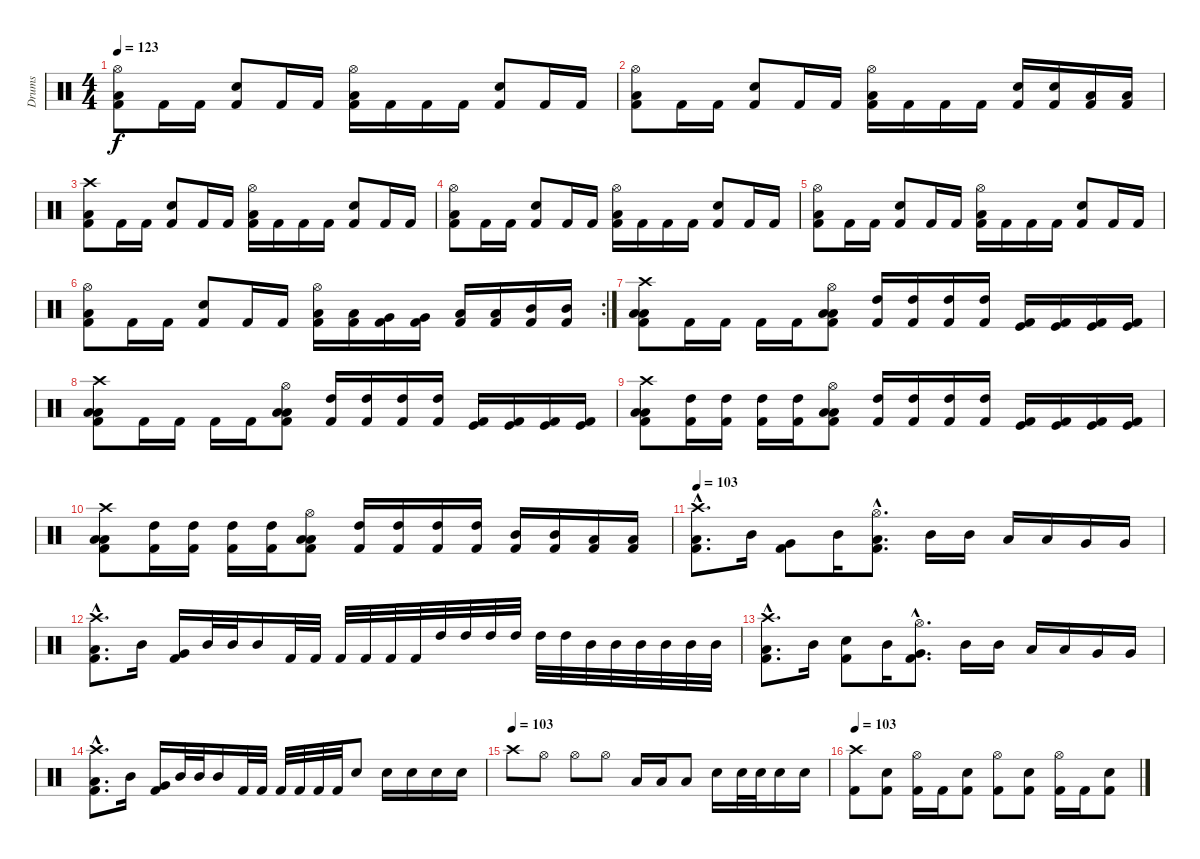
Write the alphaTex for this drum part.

\track ("Drums" "Drums") {instrument percussion}
\staff {score}
\articulation defaults
\ts (4 4)
\tempo 123
\clef neutral
\ks c
("Hi-Hat (open)" "Low Floor Tom (hit)" "Kick (hit) 2").8{dy f} "Kick (hit) 2".16 "Kick (hit) 2".16 ("Snare (hit) 2" "Kick (hit) 2").8 "Kick (hit) 2".16 "Kick (hit) 2".16 ("Hi-Hat (open)" "Low Floor Tom (hit)" "Kick (hit) 2").16 "Kick (hit) 2".16 "Kick (hit) 2".16 "Kick (hit) 2".16 ("Snare (hit) 2" "Kick (hit) 2").8 "Kick (hit) 2".16 "Kick (hit) 2".16 |
("Hi-Hat (open)" "Low Floor Tom (hit)" "Kick (hit) 2").8 "Kick (hit) 2".16 "Kick (hit) 2".16 ("Snare (hit) 2" "Kick (hit) 2").8 "Kick (hit) 2".16 "Kick (hit) 2".16 ("Hi-Hat (open)" "Low Floor Tom (hit)" "Kick (hit) 2").16 "Kick (hit) 2".16 "Kick (hit) 2".16 "Kick (hit) 2".16 ("Snare (hit) 2" "Kick (hit) 2").16 ("Snare (hit) 2" "Kick (hit) 2").16 ("Low Tom (hit)" "Kick (hit) 2").16 ("Low Tom (hit)" "Kick (hit) 2").16 |
("Crash high (hit)" "Low Floor Tom (hit)" "Kick (hit) 2").8 "Kick (hit) 2".16 "Kick (hit) 2".16 ("Snare (hit) 2" "Kick (hit) 2").8 "Kick (hit) 2".16 "Kick (hit) 2".16 ("Hi-Hat (open)" "Low Floor Tom (hit)" "Kick (hit) 2").16 "Kick (hit) 2".16 "Kick (hit) 2".16 "Kick (hit) 2".16 ("Snare (hit) 2" "Kick (hit) 2").8 "Kick (hit) 2".16 "Kick (hit) 2".16 |
("Hi-Hat (open)" "Low Floor Tom (hit)" "Kick (hit) 2").8 "Kick (hit) 2".16 "Kick (hit) 2".16 ("Snare (hit) 2" "Kick (hit) 2").8 "Kick (hit) 2".16 "Kick (hit) 2".16 ("Hi-Hat (open)" "Low Floor Tom (hit)" "Kick (hit) 2").16 "Kick (hit) 2".16 "Kick (hit) 2".16 "Kick (hit) 2".16 ("Snare (hit) 2" "Kick (hit) 2").8 "Kick (hit) 2".16 "Kick (hit) 2".16 |
("Hi-Hat (open)" "Low Floor Tom (hit)" "Kick (hit) 2").8 "Kick (hit) 2".16 "Kick (hit) 2".16 ("Snare (hit) 2" "Kick (hit) 2").8 "Kick (hit) 2".16 "Kick (hit) 2".16 ("Hi-Hat (open)" "Low Floor Tom (hit)" "Kick (hit) 2").16 "Kick (hit) 2".16 "Kick (hit) 2".16 "Kick (hit) 2".16 ("Snare (hit) 2" "Kick (hit) 2").8 "Kick (hit) 2".16 "Kick (hit) 2".16 |
\rc 2
("Hi-Hat (open)" "Low Floor Tom (hit)" "Kick (hit) 2").8 "Kick (hit) 2".16 "Kick (hit) 2".16 ("Snare (hit) 2" "Kick (hit) 2").8 "Kick (hit) 2".16 "Kick (hit) 2".16 ("Hi-Hat (open)" "Low Floor Tom (hit)" "Kick (hit) 2").16 ("Low Floor Tom (hit)" "Kick (hit) 2").16 ("Very Low Tom (hit)" "Kick (hit) 2").16 ("Very Low Tom (hit)" "Kick (hit) 2").16 ("Low Tom (hit)" "Kick (hit) 2").16 ("Low Tom (hit)" "Kick (hit) 2").16 ("Mid Tom (hit)" "Kick (hit) 2").16 ("Mid Tom (hit)" "Kick (hit) 2").16 |
("Crash high (hit)" "Low Floor Tom (hit)" "Low Floor Tom (hit)" "Kick (hit) 2").8 "Kick (hit) 2".16 "Kick (hit) 2".16 "Kick (hit) 2".16 "Kick (hit) 2".16 ("Hi-Hat (open)" "Low Tom (hit)" "Low Tom (hit)" "Kick (hit) 2").8 ("High Tom (hit)" "Kick (hit) 2").16 ("High Tom (hit)" "Kick (hit) 2").16 ("High Tom (hit)" "Kick (hit) 2").16 ("High Tom (hit)" "Kick (hit) 2").16 ("Kick (hit)" "Kick (hit) 2").16 ("Kick (hit)" "Kick (hit) 2").16 ("Kick (hit)" "Kick (hit) 2").16 ("Kick (hit)" "Kick (hit) 2").16 |
("Crash high (hit)" "Low Floor Tom (hit)" "Low Floor Tom (hit)" "Kick (hit) 2").8 "Kick (hit) 2".16 "Kick (hit) 2".16 "Kick (hit) 2".16 "Kick (hit) 2".16 ("Hi-Hat (open)" "Low Tom (hit)" "Low Tom (hit)" "Kick (hit) 2").8 ("High Tom (hit)" "Kick (hit) 2").16 ("High Tom (hit)" "Kick (hit) 2").16 ("High Tom (hit)" "Kick (hit) 2").16 ("High Tom (hit)" "Kick (hit) 2").16 ("Kick (hit)" "Kick (hit) 2").16 ("Kick (hit)" "Kick (hit) 2").16 ("Kick (hit)" "Kick (hit) 2").16 ("Kick (hit)" "Kick (hit) 2").16 |
("Crash high (hit)" "Low Floor Tom (hit)" "Low Floor Tom (hit)" "Kick (hit) 2").8 ("High Tom (hit)" "Kick (hit) 2").16 ("High Tom (hit)" "Kick (hit) 2").16 ("High Tom (hit)" "Kick (hit) 2").16 ("High Tom (hit)" "Kick (hit) 2").16 ("Hi-Hat (open)" "Low Tom (hit)" "Low Tom (hit)" "Kick (hit) 2").8 ("High Tom (hit)" "Kick (hit) 2").16 ("High Tom (hit)" "Kick (hit) 2").16 ("High Tom (hit)" "Kick (hit) 2").16 ("High Tom (hit)" "Kick (hit) 2").16 ("Kick (hit)" "Kick (hit) 2").16 ("Kick (hit)" "Kick (hit) 2").16 ("Kick (hit)" "Kick (hit) 2").16 ("Kick (hit)" "Kick (hit) 2").16 |
("Crash high (hit)" "Low Floor Tom (hit)" "Low Floor Tom (hit)" "Kick (hit) 2").8 ("High Tom (hit)" "Kick (hit) 2").16 ("High Tom (hit)" "Kick (hit) 2").16 ("High Tom (hit)" "Kick (hit) 2").16 ("High Tom (hit)" "Kick (hit) 2").16 ("Hi-Hat (open)" "Low Tom (hit)" "Low Tom (hit)" "Kick (hit) 2").8 ("High Tom (hit)" "Kick (hit) 2").16 ("High Tom (hit)" "Kick (hit) 2").16 ("High Tom (hit)" "Kick (hit) 2").16 ("High Tom (hit)" "Kick (hit) 2").16 ("Mid Tom (hit)" "Kick (hit) 2").16 ("Mid Tom (hit)" "Kick (hit) 2").16 ("Low Tom (hit)" "Kick (hit) 2").16 ("Low Tom (hit)" "Kick (hit) 2").16 |
\tempo 103
("Crash high (hit)"{hac} "Low Floor Tom (hit)"{hac} "Kick (hit) 2"{hac}).8{d} "Mid Tom (hit)".16 ("Very Low Tom (hit)" "Kick (hit) 2").8 "Mid Tom (hit)".16 ("Hi-Hat (open)"{hac} "Low Floor Tom (hit)"{hac} "Kick (hit) 2"{hac}).8{d} "Mid Tom (hit)".16 "Mid Tom (hit)".16 "Low Tom (hit)".16 "Low Tom (hit)".16 "Very Low Tom (hit)".16 "Very Low Tom (hit)".16 |
("Crash high (hit)"{hac} "Low Floor Tom (hit)"{hac} "Kick (hit) 2"{hac}).8{d} "Mid Tom (hit)".16 ("Very Low Tom (hit)" "Kick (hit) 2").16 "Mid Tom (hit)".32 "Mid Tom (hit)".32 "Mid Tom (hit)".16 "Kick (hit) 2".32 "Kick (hit) 2".32 "Kick (hit) 2".32 "Kick (hit) 2".32 "Kick (hit) 2".32 "Kick (hit) 2".32 "High Tom (hit)".32 "High Tom (hit)".32 "High Tom (hit)".32 "High Tom (hit)".32 "High Tom (hit)".32 "High Tom (hit)".32 "Mid Tom (hit)".32 "Mid Tom (hit)".32 "Mid Tom (hit)".32 "Mid Tom (hit)".32 "Mid Tom (hit)".32 "Mid Tom (hit)".32 |
("Crash high (hit)"{hac} "Low Floor Tom (hit)"{hac} "Kick (hit) 2"{hac}).8{d} "Mid Tom (hit)".16 ("Snare (hit) 2" "Kick (hit) 2").8 "Mid Tom (hit)".16 ("Hi-Hat (open)"{hac} "Very Low Tom (hit)"{hac} "Kick (hit) 2"{hac}).8{d} "Mid Tom (hit)".16 "Mid Tom (hit)".16 "Low Tom (hit)".16 "Low Tom (hit)".16 "Very Low Tom (hit)".16 "Very Low Tom (hit)".16 |
("Crash high (hit)"{hac} "Low Floor Tom (hit)"{hac} "Kick (hit) 2"{hac}).8{d} "Mid Tom (hit)".16 ("Very Low Tom (hit)" "Kick (hit) 2").16 "Mid Tom (hit)".32 "Mid Tom (hit)".32 "Mid Tom (hit)".16 "Kick (hit) 2".32 "Kick (hit) 2".32 "Kick (hit) 2".32 "Kick (hit) 2".32 "Kick (hit) 2".32 "Kick (hit) 2".32 "Electric Snare (hit)".8 "Electric Snare (hit)".16 "Electric Snare (hit)".16 "Electric Snare (hit)".16 "Electric Snare (hit)".16 |
\tempo (103)
"Crash high (hit)".8 "Hi-Hat (open)".8 "Hi-Hat (open)".8 "Hi-Hat (open)".8 "Low Tom (hit)".16 "Low Tom (hit)".16 "Low Tom (hit)".8 "Snare (hit) 2".16 "Snare (hit) 2".32 "Snare (hit) 2".32 "Snare (hit) 2".16 "Snare (hit) 2".16 |
\tempo 103
("Crash high (hit)" "Kick (hit) 2").8 ("Snare (hit) 2" "Kick (hit) 2").8 ("Hi-Hat (open)" "Kick (hit) 2").16 "Kick (hit) 2".16 ("Snare (hit) 2" "Kick (hit) 2").8 ("Hi-Hat (open)" "Kick (hit) 2").8 ("Snare (hit) 2" "Kick (hit) 2").8 ("Hi-Hat (open)" "Kick (hit) 2").16 "Kick (hit) 2".16 ("Snare (hit) 2" "Kick (hit) 2").8
